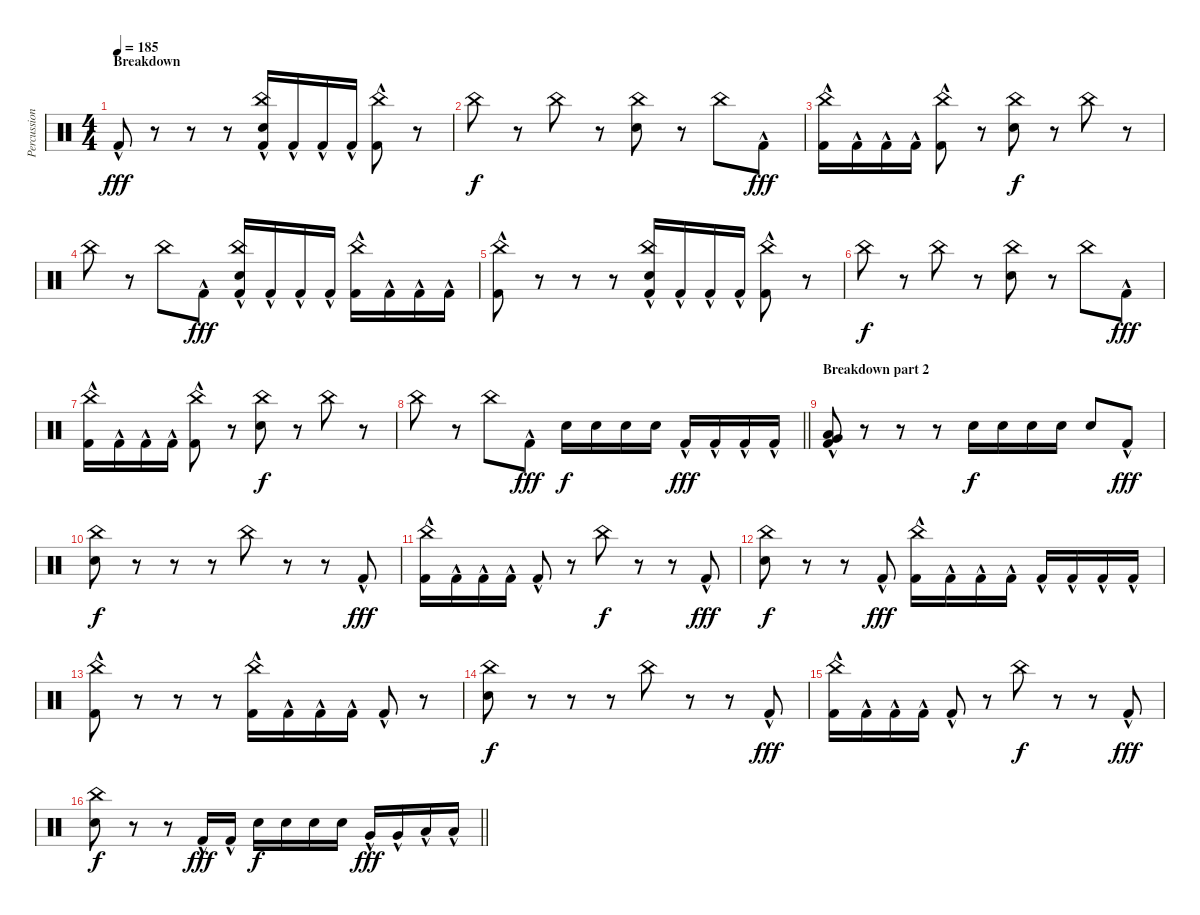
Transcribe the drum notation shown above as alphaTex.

\track ("Percussion" "Percussion") {instrument percussion}
\staff {score}
\articulation defaults
\ts (4 4)
\section ("" "Breakdown")
\tempo 185
\clef neutral
\ks c "Kick (hit) 2"{hac}.8{dy fff}
r.8 r.8 r.8 ("China (hit)" "Snare (hit) 2" "Kick (hit) 2"{hac}).16 "Kick (hit) 2"{hac}.16 "Kick (hit) 2"{hac}.16 "Kick (hit) 2"{hac}.16 ("China (hit)" "Kick (hit) 2"{hac}).8 r.8 |
"China (hit)".8{dy f} r.8 "China (hit)".8 r.8 ("China (hit)" "Snare (hit) 2").8 r.8 "China (hit)".8 "Kick (hit) 2"{hac}.8{dy fff} |
("China (hit)" "Kick (hit) 2"{hac}).16 "Kick (hit) 2"{hac}.16 "Kick (hit) 2"{hac}.16 "Kick (hit) 2"{hac}.16 ("China (hit)" "Kick (hit) 2"{hac}).8 r.8 ("China (hit)" "Snare (hit) 2").8{dy f} r.8 "China (hit)".8 r.8 |
"China (hit)".8 r.8 "China (hit)".8 "Kick (hit) 2"{hac}.8{dy fff} ("China (hit)" "Snare (hit) 2" "Kick (hit) 2"{hac}).16 "Kick (hit) 2"{hac}.16 "Kick (hit) 2"{hac}.16 "Kick (hit) 2"{hac}.16 ("China (hit)" "Kick (hit) 2"{hac}).16 "Kick (hit) 2"{hac}.16 "Kick (hit) 2"{hac}.16 "Kick (hit) 2"{hac}.16 |
("China (hit)" "Kick (hit) 2"{hac}).8 r.8 r.8 r.8 ("China (hit)" "Snare (hit) 2" "Kick (hit) 2"{hac}).16 "Kick (hit) 2"{hac}.16 "Kick (hit) 2"{hac}.16 "Kick (hit) 2"{hac}.16 ("China (hit)" "Kick (hit) 2"{hac}).8 r.8 |
"China (hit)".8{dy f} r.8 "China (hit)".8 r.8 ("China (hit)" "Snare (hit) 2").8 r.8 "China (hit)".8 "Kick (hit) 2"{hac}.8{dy fff} |
("China (hit)" "Kick (hit) 2"{hac}).16 "Kick (hit) 2"{hac}.16 "Kick (hit) 2"{hac}.16 "Kick (hit) 2"{hac}.16 ("China (hit)" "Kick (hit) 2"{hac}).8 r.8 ("China (hit)" "Snare (hit) 2").8{dy f} r.8 "China (hit)".8 r.8 |
\barLineRight lightlight "China (hit)".8
r.8 "China (hit)".8 "Kick (hit) 2"{hac}.8{dy fff} "Snare (hit) 2".16{dy f} "Snare (hit) 2".16 "Snare (hit) 2".16 "Snare (hit) 2".16 "Kick (hit) 2"{hac}.16{dy fff} "Kick (hit) 2"{hac}.16 "Kick (hit) 2"{hac}.16 "Kick (hit) 2"{hac}.16 |
\section ("" "Breakdown part 2")
("Low Floor Tom (hit)"{hac} "Very Low Tom (hit)"{hac} "Kick (hit) 2"{hac}).8 r.8 r.8 r.8 "Snare (hit) 2".16{dy f} "Snare (hit) 2".16 "Snare (hit) 2".16 "Snare (hit) 2".16 "Snare (hit) 2".8 "Kick (hit) 2"{hac}.8{dy fff} |
("China (hit)" "Snare (hit) 2").8{dy f} r.8 r.8 r.8 "China (hit)".8 r.8 r.8 "Kick (hit) 2"{hac}.8{dy fff} |
("China (hit)" "Kick (hit) 2"{hac}).16 "Kick (hit) 2"{hac}.16 "Kick (hit) 2"{hac}.16 "Kick (hit) 2"{hac}.16 "Kick (hit) 2"{hac}.8 r.8 "China (hit)".8{dy f} r.8 r.8 "Kick (hit) 2"{hac}.8{dy fff} |
("China (hit)" "Snare (hit) 2").8{dy f} r.8 r.8 "Kick (hit) 2"{hac}.8{dy fff} ("China (hit)" "Kick (hit) 2"{hac}).16 "Kick (hit) 2"{hac}.16 "Kick (hit) 2"{hac}.16 "Kick (hit) 2"{hac}.16 "Kick (hit) 2"{hac}.16 "Kick (hit) 2"{hac}.16 "Kick (hit) 2"{hac}.16 "Kick (hit) 2"{hac}.16 |
("China (hit)" "Kick (hit) 2"{hac}).8 r.8 r.8 r.8 ("China (hit)" "Kick (hit) 2"{hac}).16 "Kick (hit) 2"{hac}.16 "Kick (hit) 2"{hac}.16 "Kick (hit) 2"{hac}.16 "Kick (hit) 2"{hac}.8 r.8 |
("China (hit)" "Snare (hit) 2").8{dy f} r.8 r.8 r.8 "China (hit)".8 r.8 r.8 "Kick (hit) 2"{hac}.8{dy fff} |
("China (hit)" "Kick (hit) 2"{hac}).16 "Kick (hit) 2"{hac}.16 "Kick (hit) 2"{hac}.16 "Kick (hit) 2"{hac}.16 "Kick (hit) 2"{hac}.8 r.8 "China (hit)".8{dy f} r.8 r.8 "Kick (hit) 2"{hac}.8{dy fff} |
\barLineRight lightlight
("China (hit)" "Snare (hit) 2").8{dy f} r.8 r.8 "Kick (hit) 2"{hac}.16{dy fff} "Kick (hit) 2"{hac}.16 "Snare (hit) 2".16{dy f} "Snare (hit) 2".16 "Snare (hit) 2".16 "Snare (hit) 2".16 "Very Low Tom (hit)"{hac}.16{dy fff} "Very Low Tom (hit)"{hac}.16 "Low Floor Tom (hit)"{hac}.16 "Low Floor Tom (hit)"{hac}.16
